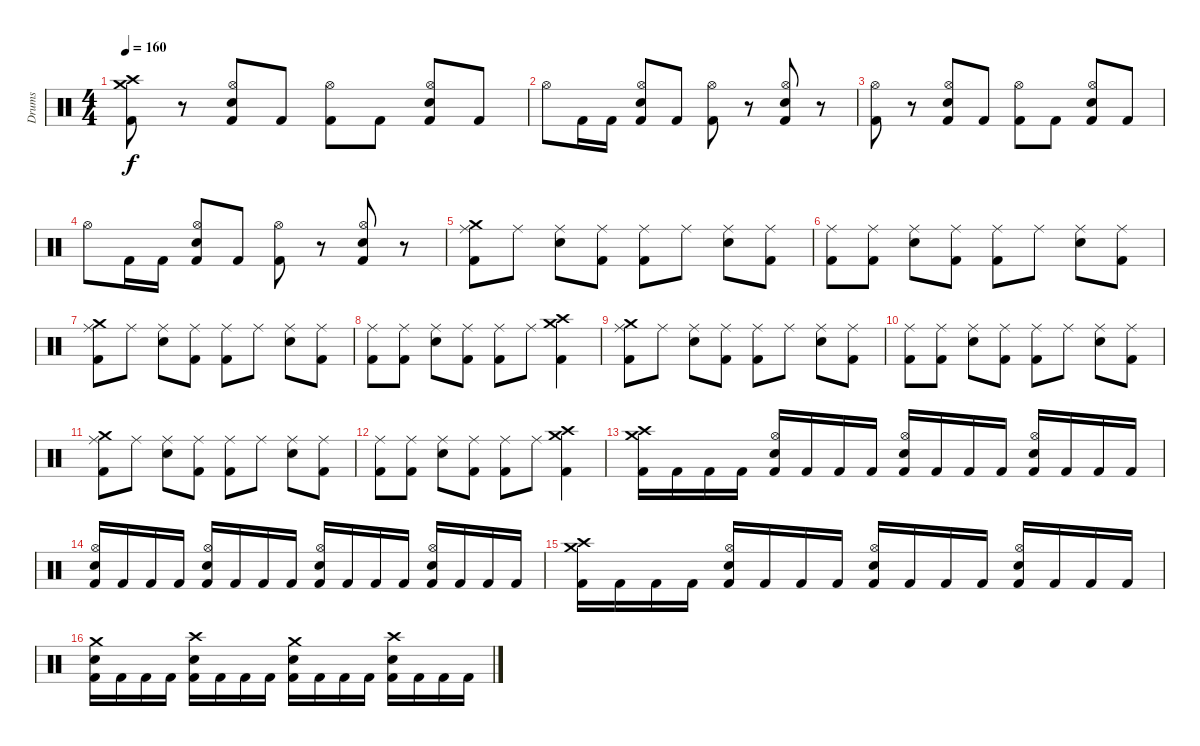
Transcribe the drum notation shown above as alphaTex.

\track ("Drums" "Drums") {instrument percussion}
\staff {score}
\articulation defaults
\ts (4 4)
\tempo 160
\clef neutral
\ks c
("Crash medium (hit)" "Crash high (hit)" "Kick (hit) 2").8{dy f} r.8 ("Hi-Hat (open)" "Snare (hit) 2" "Kick (hit) 2").8 "Kick (hit) 2".8 ("Hi-Hat (open)" "Kick (hit) 2").8 "Kick (hit) 2".8 ("Hi-Hat (open)" "Snare (hit) 2" "Kick (hit) 2").8 "Kick (hit) 2".8 |
"Hi-Hat (open)".8 "Kick (hit) 2".16 "Kick (hit) 2".16 ("Hi-Hat (open)" "Snare (hit) 2" "Kick (hit) 2").8 "Kick (hit) 2".8 ("Hi-Hat (open)" "Kick (hit) 2").8 r.8 ("Hi-Hat (open)" "Snare (hit) 2" "Kick (hit) 2").8 r.8 |
("Hi-Hat (open)" "Kick (hit) 2").8 r.8 ("Hi-Hat (open)" "Snare (hit) 2" "Kick (hit) 2").8 "Kick (hit) 2".8 ("Hi-Hat (open)" "Kick (hit) 2").8 "Kick (hit) 2".8 ("Hi-Hat (open)" "Snare (hit) 2" "Kick (hit) 2").8 "Kick (hit) 2".8 |
"Hi-Hat (open)".8 "Kick (hit) 2".16 "Kick (hit) 2".16 ("Hi-Hat (open)" "Snare (hit) 2" "Kick (hit) 2").8 "Kick (hit) 2".8 ("Hi-Hat (open)" "Kick (hit) 2").8 r.8 ("Hi-Hat (open)" "Snare (hit) 2" "Kick (hit) 2").8 r.8 |
("Ride (middle)" "Crash medium (hit)" "Kick (hit) 2").8 "Ride (middle)".8 ("Ride (middle)" "Snare (hit) 2").8 ("Ride (middle)" "Kick (hit) 2").8 ("Ride (middle)" "Kick (hit) 2").8 "Ride (middle)".8 ("Ride (middle)" "Snare (hit) 2").8 ("Ride (middle)" "Kick (hit) 2").8 |
("Ride (middle)" "Kick (hit) 2").8 ("Ride (middle)" "Kick (hit) 2").8 ("Ride (middle)" "Snare (hit) 2").8 ("Ride (middle)" "Kick (hit) 2").8 ("Ride (middle)" "Kick (hit) 2").8 "Ride (middle)".8 ("Ride (middle)" "Snare (hit) 2").8 ("Ride (middle)" "Kick (hit) 2").8 |
("Ride (middle)" "Crash medium (hit)" "Kick (hit) 2").8 "Ride (middle)".8 ("Ride (middle)" "Snare (hit) 2").8 ("Ride (middle)" "Kick (hit) 2").8 ("Ride (middle)" "Kick (hit) 2").8 "Ride (middle)".8 ("Ride (middle)" "Snare (hit) 2").8 ("Ride (middle)" "Kick (hit) 2").8 |
("Ride (middle)" "Kick (hit) 2").8 ("Ride (middle)" "Kick (hit) 2").8 ("Ride (middle)" "Snare (hit) 2").8 ("Ride (middle)" "Kick (hit) 2").8 ("Ride (middle)" "Kick (hit) 2").8 "Ride (middle)".8 ("Crash medium (hit)" "Crash high (hit)" "Kick (hit) 2").4 |
("Ride (middle)" "Crash medium (hit)" "Kick (hit) 2").8 "Ride (middle)".8 ("Ride (middle)" "Snare (hit) 2").8 ("Ride (middle)" "Kick (hit) 2").8 ("Ride (middle)" "Kick (hit) 2").8 "Ride (middle)".8 ("Ride (middle)" "Snare (hit) 2").8 ("Ride (middle)" "Kick (hit) 2").8 |
("Ride (middle)" "Kick (hit) 2").8 ("Ride (middle)" "Kick (hit) 2").8 ("Ride (middle)" "Snare (hit) 2").8 ("Ride (middle)" "Kick (hit) 2").8 ("Ride (middle)" "Kick (hit) 2").8 "Ride (middle)".8 ("Ride (middle)" "Snare (hit) 2").8 ("Ride (middle)" "Kick (hit) 2").8 |
("Ride (middle)" "Crash medium (hit)" "Kick (hit) 2").8 "Ride (middle)".8 ("Ride (middle)" "Snare (hit) 2").8 ("Ride (middle)" "Kick (hit) 2").8 ("Ride (middle)" "Kick (hit) 2").8 "Ride (middle)".8 ("Ride (middle)" "Snare (hit) 2").8 ("Ride (middle)" "Kick (hit) 2").8 |
("Ride (middle)" "Kick (hit) 2").8 ("Ride (middle)" "Kick (hit) 2").8 ("Ride (middle)" "Snare (hit) 2").8 ("Ride (middle)" "Kick (hit) 2").8 ("Ride (middle)" "Kick (hit) 2").8 "Ride (middle)".8 ("Crash medium (hit)" "Crash high (hit)" "Kick (hit) 2").4 |
("Crash high (hit)" "Crash medium (hit)" "Kick (hit) 2").16 "Kick (hit) 2".16 "Kick (hit) 2".16 "Kick (hit) 2".16 ("Hi-Hat (open)" "Snare (hit) 2" "Kick (hit) 2").16 "Kick (hit) 2".16 "Kick (hit) 2".16 "Kick (hit) 2".16 ("Hi-Hat (open)" "Snare (hit) 2" "Kick (hit) 2").16 "Kick (hit) 2".16 "Kick (hit) 2".16 "Kick (hit) 2".16 ("Hi-Hat (open)" "Snare (hit) 2" "Kick (hit) 2").16 "Kick (hit) 2".16 "Kick (hit) 2".16 "Kick (hit) 2".16 |
("Hi-Hat (open)" "Snare (hit) 2" "Kick (hit) 2").16 "Kick (hit) 2".16 "Kick (hit) 2".16 "Kick (hit) 2".16 ("Hi-Hat (open)" "Snare (hit) 2" "Kick (hit) 2").16 "Kick (hit) 2".16 "Kick (hit) 2".16 "Kick (hit) 2".16 ("Hi-Hat (open)" "Snare (hit) 2" "Kick (hit) 2").16 "Kick (hit) 2".16 "Kick (hit) 2".16 "Kick (hit) 2".16 ("Hi-Hat (open)" "Snare (hit) 2" "Kick (hit) 2").16 "Kick (hit) 2".16 "Kick (hit) 2".16 "Kick (hit) 2".16 |
("Crash high (hit)" "Crash medium (hit)" "Kick (hit) 2").16 "Kick (hit) 2".16 "Kick (hit) 2".16 "Kick (hit) 2".16 ("Hi-Hat (open)" "Snare (hit) 2" "Kick (hit) 2").16 "Kick (hit) 2".16 "Kick (hit) 2".16 "Kick (hit) 2".16 ("Hi-Hat (open)" "Snare (hit) 2" "Kick (hit) 2").16 "Kick (hit) 2".16 "Kick (hit) 2".16 "Kick (hit) 2".16 ("Hi-Hat (open)" "Snare (hit) 2" "Kick (hit) 2").16 "Kick (hit) 2".16 "Kick (hit) 2".16 "Kick (hit) 2".16 |
("Crash medium (hit)" "Snare (hit) 2" "Kick (hit) 2").16 "Kick (hit) 2".16 "Kick (hit) 2".16 "Kick (hit) 2".16 ("Crash high (hit)" "Snare (hit) 2" "Kick (hit) 2").16 "Kick (hit) 2".16 "Kick (hit) 2".16 "Kick (hit) 2".16 ("Crash medium (hit)" "Snare (hit) 2" "Kick (hit) 2").16 "Kick (hit) 2".16 "Kick (hit) 2".16 "Kick (hit) 2".16 ("Crash high (hit)" "Snare (hit) 2" "Kick (hit) 2").16 "Kick (hit) 2".16 "Kick (hit) 2".16 "Kick (hit) 2".16
